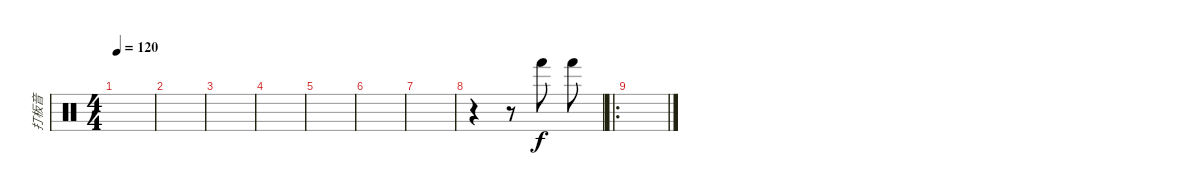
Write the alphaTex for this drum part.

\track ("打板音" "打板音") {instrument percussion}
\staff {score}
\articulation defaults
\ts (4 4)
\tempo 120
\clef neutral
\ks c
|
|
|
|
|
|
|
r.4 r.8 "Hand (hit)".8 "Hand (hit)".8 |
\ro
